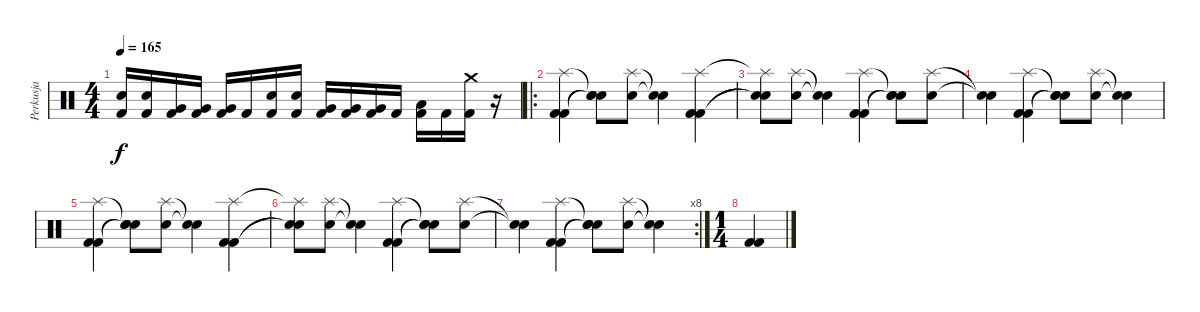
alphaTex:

\track ("Perkusja" "Perkusja") {instrument percussion}
\staff {score}
\articulation defaults
\ts (4 4)
\tempo 165
\clef neutral
\ks c
("Electric Snare (hit)" "Kick (hit) 2").16{dy f} ("Snare (hit) 2" "Kick (hit) 2").16 ("Very Low Tom (hit)" "Kick (hit) 2").16 ("Very Low Tom (hit)" "Kick (hit) 2").16 ("Very Low Tom (hit)" "Kick (hit) 2").16 "Kick (hit) 2".16 ("Electric Snare (hit)" "Kick (hit) 2").16 ("Snare (hit) 2" "Kick (hit) 2").16 ("Very Low Tom (hit)" "Kick (hit) 2").16 ("Very Low Tom (hit)" "Kick (hit) 2").16 ("Very Low Tom (hit)" "Kick (hit) 2").16 "Kick (hit) 2".16 ("Low Tom (hit)" "Kick (hit) 2").16 "Kick (hit) 2".16 ("Crash medium (hit)" "Kick (hit) 2").16 r.16 |
\ro
("Splash (hit)" "Kick (hit) 2" "Kick (hit) 2").4 ("Snare (hit)"{t} "Snare (hit)"{t} "Snare (hit)"{t}).8 ("Splash (hit)" "Snare (hit) 2").8 ("Snare (hit)"{t} "Snare (hit)"{t}).4 ("Splash (hit)" "Kick (hit) 2" "Kick (hit) 2").4 |
("Splash (hit)"{t} "Snare (hit)"{t} "Snare (hit)"{t}).8 ("Splash (hit)" "Snare (hit) 2").8 ("Snare (hit)"{t} "Snare (hit)"{t}).4 ("Splash (hit)" "Kick (hit) 2" "Kick (hit) 2").4 ("Snare (hit)"{t} "Snare (hit)"{t} "Snare (hit)"{t}).8 ("Splash (hit)" "Snare (hit) 2").8 |
("Snare (hit)"{t} "Snare (hit)"{t}).4 ("Splash (hit)" "Kick (hit) 2" "Kick (hit) 2").4 ("Snare (hit)"{t} "Snare (hit)"{t} "Snare (hit)"{t}).8 ("Splash (hit)" "Snare (hit) 2").8 ("Snare (hit)"{t} "Snare (hit)"{t}).4 |
("Splash (hit)" "Kick (hit) 2" "Kick (hit) 2").4 ("Snare (hit)"{t} "Snare (hit)"{t} "Snare (hit)"{t}).8 ("Splash (hit)" "Snare (hit) 2").8 ("Snare (hit)"{t} "Snare (hit)"{t}).4 ("Splash (hit)" "Kick (hit) 2" "Kick (hit) 2").4 |
("Splash (hit)"{t} "Snare (hit)"{t} "Snare (hit)"{t}).8 ("Splash (hit)" "Snare (hit) 2").8 ("Snare (hit)"{t} "Snare (hit)"{t}).4 ("Splash (hit)" "Kick (hit) 2" "Kick (hit) 2").4 ("Snare (hit)"{t} "Snare (hit)"{t} "Snare (hit)"{t}).8 ("Splash (hit)" "Snare (hit) 2").8 |
\rc 8
("Snare (hit)"{t} "Snare (hit)"{t}).4 ("Splash (hit)" "Kick (hit) 2" "Kick (hit) 2").4 ("Snare (hit)"{t} "Snare (hit)"{t} "Snare (hit)"{t}).8 ("Splash (hit)" "Snare (hit) 2").8 ("Snare (hit)"{t} "Snare (hit)"{t}).4 |
\ts (1 4)
("Kick (hit) 2" "Kick (hit) 2").4
